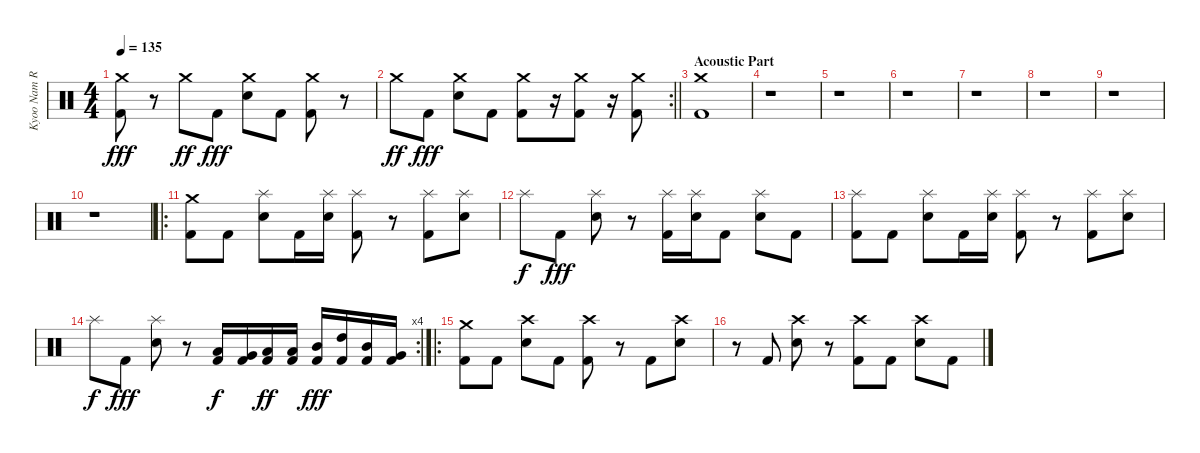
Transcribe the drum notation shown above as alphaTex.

\track ("Kyoo Nam Rossi (Drums)" "Kyoo Nam R") {instrument percussion}
\staff {score}
\articulation defaults
\ts (4 4)
\tempo 135
\clef neutral
\ks c
("Crash medium (hit)" "Kick (hit) 2").8{dy fff} r.8 "Crash medium (hit)".8{dy ff} "Kick (hit) 2".8{dy fff} ("Crash medium (hit)" "Electric Snare (hit)").8 "Kick (hit) 2".8 ("Crash medium (hit)" "Kick (hit) 2").8 r.8 |
\rc 2
\barLineRight lightlight "Crash medium (hit)".8{dy ff} "Kick (hit) 2".8{dy fff}
("Crash medium (hit)" "Electric Snare (hit)").8 "Kick (hit) 2".8 ("Crash medium (hit)" "Kick (hit) 2").8 r.16 ("Crash medium (hit)" "Kick (hit) 2").8 r.16 ("Crash medium (hit)" "Kick (hit) 2").8 |
\section ("" "Acoustic Part")
("Crash medium (hit)" "Kick (hit) 2").1 |
r.1 |
r.1 |
r.1 |
r.1 |
r.1 |
r.1 |
r.1 |
\ro
("Crash medium (hit)" "Kick (hit) 2").8 "Kick (hit) 2".8 ("Splash (hit)" "Electric Snare (hit)").8 "Kick (hit) 2".16 ("Splash (hit)" "Electric Snare (hit)").16 ("Splash (hit)" "Kick (hit) 2").8 r.8 ("Splash (hit)" "Kick (hit) 2").8 ("Splash (hit)" "Electric Snare (hit)").8 |
"Splash (hit)".8{dy f} "Kick (hit) 2".8{dy fff} ("Splash (hit)" "Electric Snare (hit)").8 r.8 ("Splash (hit)" "Kick (hit) 2").16 ("Splash (hit)" "Electric Snare (hit)").16 "Kick (hit) 2".8 ("Splash (hit)" "Electric Snare (hit)").8 "Kick (hit) 2".8 |
("Splash (hit)" "Kick (hit) 2").8 "Kick (hit) 2".8 ("Splash (hit)" "Electric Snare (hit)").8 "Kick (hit) 2".16 ("Splash (hit)" "Electric Snare (hit)").16 ("Splash (hit)" "Kick (hit) 2").8 r.8 ("Splash (hit)" "Kick (hit) 2").8 ("Splash (hit)" "Electric Snare (hit)").8 |
\rc 4 "Splash (hit)".8{dy f} "Kick (hit) 2".8{dy fff}
("Splash (hit)" "Electric Snare (hit)").8 r.8 ("Low Tom (hit)" "Kick (hit) 2").16{dy f} ("Very Low Tom (hit)" "Kick (hit) 2").16 ("Low Floor Tom (hit)" "Kick (hit) 2").16{dy ff} ("Low Tom (hit)" "Kick (hit) 2").16 ("Mid Tom (hit)" "Kick (hit) 2").16{dy fff} ("High Tom (hit)" "Kick (hit) 2").16 ("Mid Tom (hit)" "Kick (hit) 2").16 ("Very Low Tom (hit)" "Kick (hit) 2").16 |
\ro
("Crash medium (hit)" "Kick (hit) 2").8 "Kick (hit) 2".8 ("Crash high (hit)" "Electric Snare (hit)").8 "Kick (hit) 2".8 ("Crash high (hit)" "Kick (hit) 2").8 r.8 "Kick (hit) 2".8 ("Crash high (hit)" "Electric Snare (hit)").8 |
r.8 "Kick (hit) 2".8 ("Crash high (hit)" "Electric Snare (hit)").8 r.8 ("Crash high (hit)" "Kick (hit) 2").8 "Kick (hit) 2".8 ("Crash high (hit)" "Electric Snare (hit)").8 "Kick (hit) 2".8
